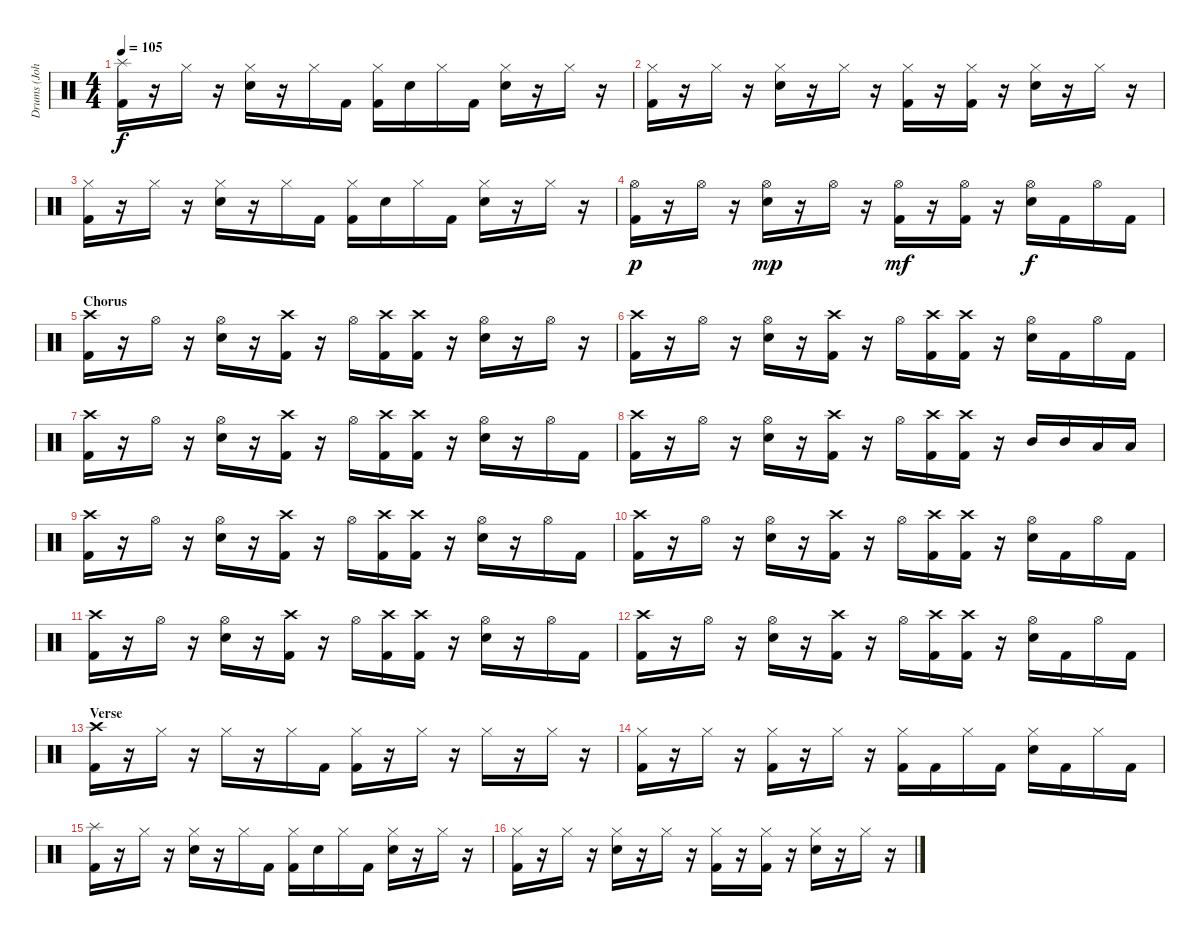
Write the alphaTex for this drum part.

\track ("Drums (John Otto)" "Drums (Joh") {instrument percussion}
\staff {score}
\articulation defaults
\ts (4 4)
\tempo 105
\clef neutral
\ks c
("Splash (hit)" "Kick (hit) 2").16{dy f} r.16 "Hi-Hat (closed)".16 r.16 ("Hi-Hat (closed)" "Electric Snare (hit)").16 r.16 "Hi-Hat (closed)".16 "Kick (hit) 2".16 ("Hi-Hat (closed)" "Kick (hit) 2").16 "Electric Snare (hit)".16 "Hi-Hat (closed)".16 "Kick (hit) 2".16 ("Hi-Hat (closed)" "Electric Snare (hit)").16 r.16 "Hi-Hat (closed)".16 r.16 |
("Hi-Hat (closed)" "Kick (hit) 2").16 r.16 "Hi-Hat (closed)".16 r.16 ("Hi-Hat (closed)" "Electric Snare (hit)").16 r.16 "Hi-Hat (closed)".16 r.16 ("Hi-Hat (closed)" "Kick (hit) 2").16 r.16 ("Hi-Hat (closed)" "Kick (hit) 2").16 r.16 ("Hi-Hat (closed)" "Electric Snare (hit)").16 r.16 "Hi-Hat (closed)".16 r.16 |
("Hi-Hat (closed)" "Kick (hit) 2").16 r.16 "Hi-Hat (closed)".16 r.16 ("Hi-Hat (closed)" "Electric Snare (hit)").16 r.16 "Hi-Hat (closed)".16 "Kick (hit) 2".16 ("Hi-Hat (closed)" "Kick (hit) 2").16 "Electric Snare (hit)".16 "Hi-Hat (closed)".16 "Kick (hit) 2".16 ("Hi-Hat (closed)" "Electric Snare (hit)").16 r.16 "Hi-Hat (closed)".16 r.16 |
("Hi-Hat (open)" "Kick (hit) 2").16{dy p} r.16 "Hi-Hat (open)".16 r.16 ("Hi-Hat (open)" "Electric Snare (hit)").16{dy mp} r.16 "Hi-Hat (open)".16 r.16 ("Hi-Hat (open)" "Kick (hit) 2").16{dy mf} r.16 ("Hi-Hat (open)" "Kick (hit) 2").16 r.16 ("Hi-Hat (open)" "Electric Snare (hit)").16{dy f} "Kick (hit) 2".16 "Hi-Hat (open)".16 "Kick (hit) 2".16 |
\section ("" "Chorus")
("Crash high (hit)" "Kick (hit) 2").16 r.16 "Hi-Hat (open)".16 r.16 ("Hi-Hat (open)" "Electric Snare (hit)").16 r.16 ("Crash high (hit)" "Kick (hit) 2").16 r.16 "Hi-Hat (open)".16 ("Crash high (hit)" "Kick (hit) 2").16 ("Crash high (hit)" "Kick (hit) 2").16 r.16 ("Hi-Hat (open)" "Electric Snare (hit)").16 r.16 "Hi-Hat (open)".16 r.16 |
("Crash high (hit)" "Kick (hit) 2").16 r.16 "Hi-Hat (open)".16 r.16 ("Hi-Hat (open)" "Electric Snare (hit)").16 r.16 ("Crash high (hit)" "Kick (hit) 2").16 r.16 "Hi-Hat (open)".16 ("Crash high (hit)" "Kick (hit) 2").16 ("Crash high (hit)" "Kick (hit) 2").16 r.16 ("Hi-Hat (open)" "Electric Snare (hit)").16 "Kick (hit) 2".16 "Hi-Hat (open)".16 "Kick (hit) 2".16 |
("Crash high (hit)" "Kick (hit) 2").16 r.16 "Hi-Hat (open)".16 r.16 ("Hi-Hat (open)" "Electric Snare (hit)").16 r.16 ("Crash high (hit)" "Kick (hit) 2").16 r.16 "Hi-Hat (open)".16 ("Crash high (hit)" "Kick (hit) 2").16 ("Crash high (hit)" "Kick (hit) 2").16 r.16 ("Hi-Hat (open)" "Electric Snare (hit)").16 r.16 "Hi-Hat (open)".16 "Kick (hit) 2".16 |
("Crash high (hit)" "Kick (hit) 2").16 r.16 "Hi-Hat (open)".16 r.16 ("Hi-Hat (open)" "Electric Snare (hit)").16 r.16 ("Crash high (hit)" "Kick (hit) 2").16 r.16 "Hi-Hat (open)".16 ("Crash high (hit)" "Kick (hit) 2").16 ("Crash high (hit)" "Kick (hit) 2").16 r.16 "Mid Tom (hit)".16 "Mid Tom (hit)".16 "Low Tom (hit)".16 "Low Tom (hit)".16 |
("Crash high (hit)" "Kick (hit) 2").16 r.16 "Hi-Hat (open)".16 r.16 ("Hi-Hat (open)" "Electric Snare (hit)").16 r.16 ("Crash high (hit)" "Kick (hit) 2").16 r.16 "Hi-Hat (open)".16 ("Crash high (hit)" "Kick (hit) 2").16 ("Crash high (hit)" "Kick (hit) 2").16 r.16 ("Hi-Hat (open)" "Electric Snare (hit)").16 r.16 "Hi-Hat (open)".16 "Kick (hit) 2".16 |
("Crash high (hit)" "Kick (hit) 2").16 r.16 "Hi-Hat (open)".16 r.16 ("Hi-Hat (open)" "Electric Snare (hit)").16 r.16 ("Crash high (hit)" "Kick (hit) 2").16 r.16 "Hi-Hat (open)".16 ("Crash high (hit)" "Kick (hit) 2").16 ("Crash high (hit)" "Kick (hit) 2").16 r.16 ("Hi-Hat (open)" "Electric Snare (hit)").16 "Kick (hit) 2".16 "Hi-Hat (open)".16 "Kick (hit) 2".16 |
("Crash high (hit)" "Kick (hit) 2").16 r.16 "Hi-Hat (open)".16 r.16 ("Hi-Hat (open)" "Electric Snare (hit)").16 r.16 ("Crash high (hit)" "Kick (hit) 2").16 r.16 "Hi-Hat (open)".16 ("Crash high (hit)" "Kick (hit) 2").16 ("Crash high (hit)" "Kick (hit) 2").16 r.16 ("Hi-Hat (open)" "Electric Snare (hit)").16 r.16 "Hi-Hat (open)".16 "Kick (hit) 2".16 |
("Crash high (hit)" "Kick (hit) 2").16 r.16 "Hi-Hat (open)".16 r.16 ("Hi-Hat (open)" "Electric Snare (hit)").16 r.16 ("Crash high (hit)" "Kick (hit) 2").16 r.16 "Hi-Hat (open)".16 ("Crash high (hit)" "Kick (hit) 2").16 ("Crash high (hit)" "Kick (hit) 2").16 r.16 ("Hi-Hat (open)" "Electric Snare (hit)").16 "Kick (hit) 2".16 "Hi-Hat (open)".16 "Kick (hit) 2".16 |
\section ("" "Verse")
("Crash high (hit)" "Kick (hit) 2").16 r.16 "Hi-Hat (closed)".16 r.16 "Hi-Hat (closed)".16 r.16 "Hi-Hat (closed)".16 "Kick (hit) 2".16 ("Hi-Hat (closed)" "Kick (hit) 2").16 r.16 "Hi-Hat (closed)".16 r.16 "Hi-Hat (closed)".16 r.16 "Hi-Hat (closed)".16 r.16 |
("Hi-Hat (closed)" "Kick (hit) 2").16 r.16 "Hi-Hat (closed)".16 r.16 ("Hi-Hat (closed)" "Kick (hit) 2").16 r.16 "Hi-Hat (closed)".16 r.16 ("Hi-Hat (closed)" "Kick (hit) 2").16 "Kick (hit) 2".16 "Hi-Hat (closed)".16 "Kick (hit) 2".16 ("Hi-Hat (closed)" "Electric Snare (hit)").16 "Kick (hit) 2".16 "Hi-Hat (closed)".16 "Kick (hit) 2".16 |
("Splash (hit)" "Kick (hit) 2").16 r.16 "Hi-Hat (closed)".16 r.16 ("Hi-Hat (closed)" "Electric Snare (hit)").16 r.16 "Hi-Hat (closed)".16 "Kick (hit) 2".16 ("Hi-Hat (closed)" "Kick (hit) 2").16 "Electric Snare (hit)".16 "Hi-Hat (closed)".16 "Kick (hit) 2".16 ("Hi-Hat (closed)" "Electric Snare (hit)").16 r.16 "Hi-Hat (closed)".16 r.16 |
("Hi-Hat (closed)" "Kick (hit) 2").16 r.16 "Hi-Hat (closed)".16 r.16 ("Hi-Hat (closed)" "Electric Snare (hit)").16 r.16 "Hi-Hat (closed)".16 r.16 ("Hi-Hat (closed)" "Kick (hit) 2").16 r.16 ("Hi-Hat (closed)" "Kick (hit) 2").16 r.16 ("Hi-Hat (closed)" "Electric Snare (hit)").16 r.16 "Hi-Hat (closed)".16 r.16
